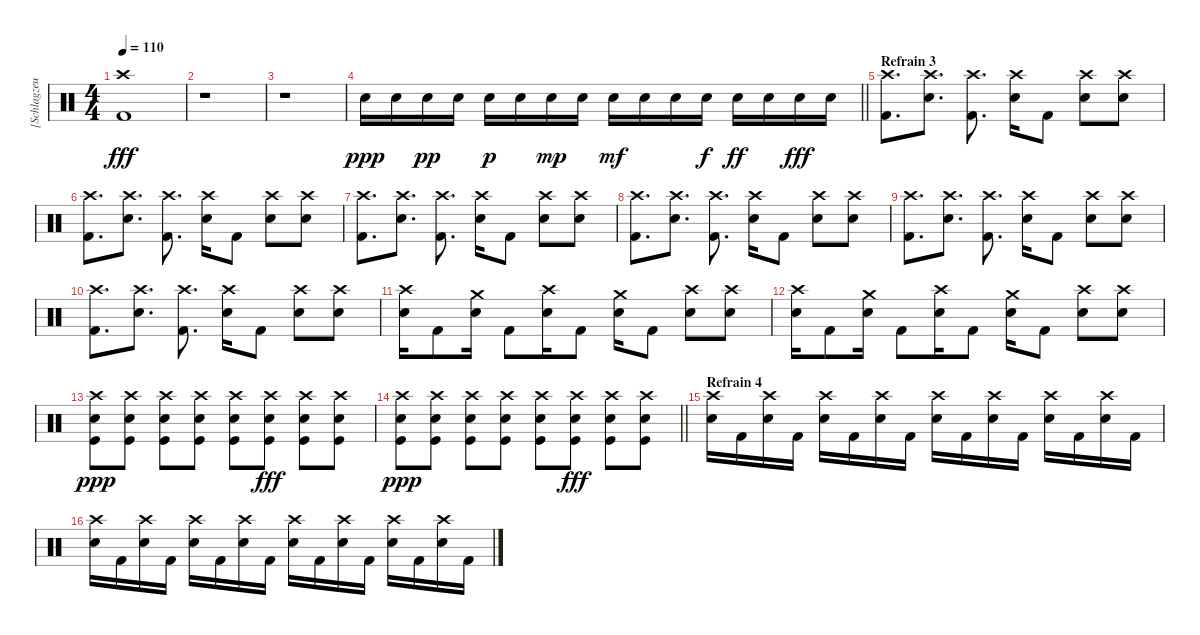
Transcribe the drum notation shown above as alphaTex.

\track ("[Schlagzeug]" "[Schlagzeu") {instrument percussion}
\staff {score}
\articulation defaults
\ts (4 4)
\tempo 110
\clef neutral
\ks c
("Crash high (hit)" "Kick (hit) 2").1{dy fff} |
r.1 |
r.1 |
\barLineRight lightlight "Electric Snare (hit)".16{dy ppp} "Electric Snare (hit)".16 "Electric Snare (hit)".16{dy pp} "Electric Snare (hit)".16 "Electric Snare (hit)".16{dy p} "Electric Snare (hit)".16 "Electric Snare (hit)".16{dy mp} "Electric Snare (hit)".16 "Electric Snare (hit)".16{dy mf} "Electric Snare (hit)".16 "Electric Snare (hit)".16 "Electric Snare (hit)".16{dy f} "Electric Snare (hit)".16{dy ff} "Electric Snare (hit)".16 "Electric Snare (hit)".16{dy fff} "Electric Snare (hit)".16
|
\section ("" "Refrain 3")
("Crash high (hit)" "Kick (hit) 2").8{d} ("Crash high (hit)" "Electric Snare (hit)").8{d} ("Crash high (hit)" "Kick (hit) 2").8{d} ("Crash high (hit)" "Electric Snare (hit)").16 "Kick (hit) 2".8 ("Electric Snare (hit)" "Crash high (hit)").8 ("Electric Snare (hit)" "Crash high (hit)").8 |
("Crash high (hit)" "Kick (hit) 2").8{d} ("Crash high (hit)" "Electric Snare (hit)").8{d} ("Crash high (hit)" "Kick (hit) 2").8{d} ("Crash high (hit)" "Electric Snare (hit)").16 "Kick (hit) 2".8 ("Electric Snare (hit)" "Crash high (hit)").8 ("Electric Snare (hit)" "Crash high (hit)").8 |
("Crash high (hit)" "Kick (hit) 2").8{d} ("Crash high (hit)" "Electric Snare (hit)").8{d} ("Crash high (hit)" "Kick (hit) 2").8{d} ("Crash high (hit)" "Electric Snare (hit)").16 "Kick (hit) 2".8 ("Electric Snare (hit)" "Crash high (hit)").8 ("Electric Snare (hit)" "Crash high (hit)").8 |
("Crash high (hit)" "Kick (hit) 2").8{d} ("Crash high (hit)" "Electric Snare (hit)").8{d} ("Crash high (hit)" "Kick (hit) 2").8{d} ("Crash high (hit)" "Electric Snare (hit)").16 "Kick (hit) 2".8 ("Electric Snare (hit)" "Crash high (hit)").8 ("Electric Snare (hit)" "Crash high (hit)").8 |
("Crash high (hit)" "Kick (hit) 2").8{d} ("Crash high (hit)" "Electric Snare (hit)").8{d} ("Crash high (hit)" "Kick (hit) 2").8{d} ("Crash high (hit)" "Electric Snare (hit)").16 "Kick (hit) 2".8 ("Electric Snare (hit)" "Crash high (hit)").8 ("Electric Snare (hit)" "Crash high (hit)").8 |
("Crash high (hit)" "Kick (hit) 2").8{d} ("Crash high (hit)" "Electric Snare (hit)").8{d} ("Crash high (hit)" "Kick (hit) 2").8{d} ("Crash high (hit)" "Electric Snare (hit)").16 "Kick (hit) 2".8 ("Electric Snare (hit)" "Crash high (hit)").8 ("Electric Snare (hit)" "Crash high (hit)").8 |
("Crash high (hit)" "Electric Snare (hit)").16 "Kick (hit) 2".8 ("Crash medium (hit)" "Electric Snare (hit)").16 "Kick (hit) 2".8 ("Crash high (hit)" "Electric Snare (hit)").16 "Kick (hit) 2".8 ("Crash medium (hit)" "Electric Snare (hit)").16 "Kick (hit) 2".8 ("Crash high (hit)" "Electric Snare (hit)").8 ("Crash high (hit)" "Electric Snare (hit)").8 |
("Crash high (hit)" "Electric Snare (hit)").16 "Kick (hit) 2".8 ("Crash medium (hit)" "Electric Snare (hit)").16 "Kick (hit) 2".8 ("Crash high (hit)" "Electric Snare (hit)").16 "Kick (hit) 2".8 ("Crash medium (hit)" "Electric Snare (hit)").16 "Kick (hit) 2".8 ("Crash high (hit)" "Electric Snare (hit)").8 ("Crash high (hit)" "Electric Snare (hit)").8 |
("Electric Snare (hit)" "Crash high (hit)" "Kick (hit)").8{dy ppp} ("Electric Snare (hit)" "Crash high (hit)" "Kick (hit)").8 ("Electric Snare (hit)" "Crash high (hit)" "Kick (hit)").8 ("Electric Snare (hit)" "Crash high (hit)" "Kick (hit)").8 ("Electric Snare (hit)" "Crash high (hit)" "Kick (hit)").8 ("Electric Snare (hit)" "Crash high (hit)" "Kick (hit)").8{dy fff} ("Electric Snare (hit)" "Crash high (hit)" "Kick (hit)").8 ("Electric Snare (hit)" "Crash high (hit)" "Kick (hit)").8 |
\barLineRight lightlight
("Electric Snare (hit)" "Crash high (hit)" "Kick (hit)").8{dy ppp} ("Electric Snare (hit)" "Crash high (hit)" "Kick (hit)").8 ("Electric Snare (hit)" "Crash high (hit)" "Kick (hit)").8 ("Electric Snare (hit)" "Crash high (hit)" "Kick (hit)").8 ("Electric Snare (hit)" "Crash high (hit)" "Kick (hit)").8 ("Electric Snare (hit)" "Crash high (hit)" "Kick (hit)").8{dy fff} ("Electric Snare (hit)" "Crash high (hit)" "Kick (hit)").8 ("Electric Snare (hit)" "Crash high (hit)" "Kick (hit)").8 |
\section ("" "Refrain 4")
("Crash high (hit)" "Electric Snare (hit)").16 "Kick (hit) 2".16 ("Crash high (hit)" "Electric Snare (hit)").16 "Kick (hit) 2".16 ("Crash high (hit)" "Electric Snare (hit)").16 "Kick (hit) 2".16 ("Crash high (hit)" "Electric Snare (hit)").16 "Kick (hit) 2".16 ("Crash high (hit)" "Electric Snare (hit)").16 "Kick (hit) 2".16 ("Crash high (hit)" "Electric Snare (hit)").16 "Kick (hit) 2".16 ("Crash high (hit)" "Electric Snare (hit)").16 "Kick (hit) 2".16 ("Crash high (hit)" "Electric Snare (hit)").16 "Kick (hit) 2".16 |
("Crash high (hit)" "Electric Snare (hit)").16 "Kick (hit) 2".16 ("Crash high (hit)" "Electric Snare (hit)").16 "Kick (hit) 2".16 ("Crash high (hit)" "Electric Snare (hit)").16 "Kick (hit) 2".16 ("Crash high (hit)" "Electric Snare (hit)").16 "Kick (hit) 2".16 ("Crash high (hit)" "Electric Snare (hit)").16 "Kick (hit) 2".16 ("Crash high (hit)" "Electric Snare (hit)").16 "Kick (hit) 2".16 ("Crash high (hit)" "Electric Snare (hit)").16 "Kick (hit) 2".16 ("Crash high (hit)" "Electric Snare (hit)").16 "Kick (hit) 2".16
